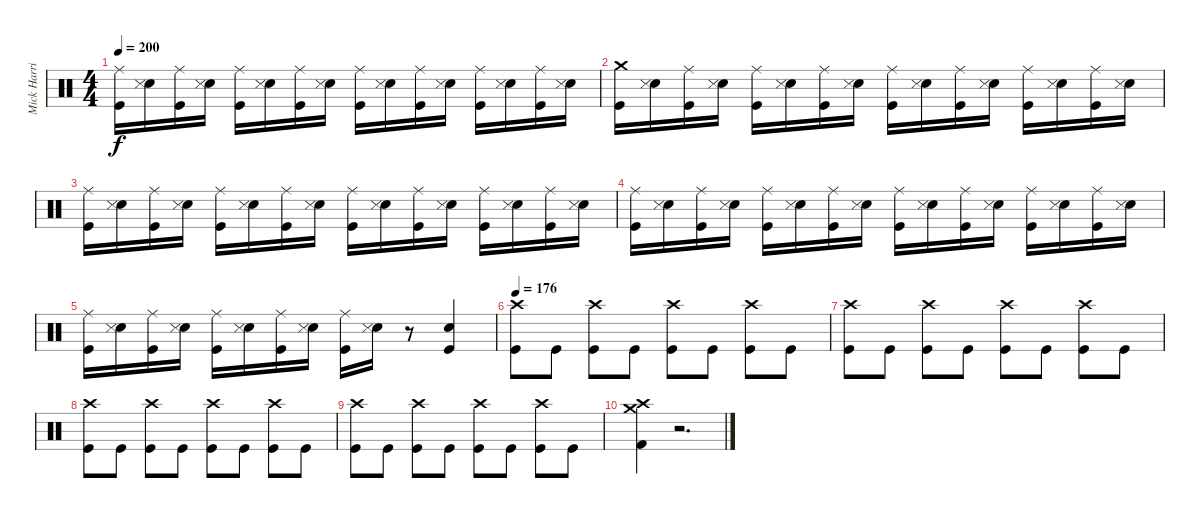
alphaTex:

\track ("Mick Harris (Drums)" "Mick Harri") {instrument percussion}
\staff {score}
\articulation defaults
\ts (4 4)
\tempo 200
\clef neutral
\ks c
("Kick (hit)" "Ride (middle)").16{dy f} ("Electric Snare (hit)" "Snare (side stick) 3").16 ("Kick (hit)" "Ride (middle)").16 ("Electric Snare (hit)" "Snare (side stick) 3").16 ("Kick (hit)" "Ride (middle)").16 ("Electric Snare (hit)" "Snare (side stick) 3").16 ("Kick (hit)" "Ride (middle)").16 ("Electric Snare (hit)" "Snare (side stick) 3").16 ("Kick (hit)" "Ride (middle)").16 ("Electric Snare (hit)" "Snare (side stick) 3").16 ("Kick (hit)" "Ride (middle)").16 ("Electric Snare (hit)" "Snare (side stick) 3").16 ("Kick (hit)" "Ride (middle)").16 ("Electric Snare (hit)" "Snare (side stick) 3").16 ("Kick (hit)" "Ride (middle)").16 ("Electric Snare (hit)" "Snare (side stick) 3").16 |
("Kick (hit)" "Crash medium (hit)").16 ("Electric Snare (hit)" "Snare (side stick) 3").16 ("Kick (hit)" "Ride (middle)").16 ("Electric Snare (hit)" "Snare (side stick) 3").16 ("Kick (hit)" "Ride (middle)").16 ("Electric Snare (hit)" "Snare (side stick) 3").16 ("Kick (hit)" "Ride (middle)").16 ("Electric Snare (hit)" "Snare (side stick) 3").16 ("Kick (hit)" "Ride (middle)").16 ("Electric Snare (hit)" "Snare (side stick) 3").16 ("Kick (hit)" "Ride (middle)").16 ("Electric Snare (hit)" "Snare (side stick) 3").16 ("Kick (hit)" "Ride (middle)").16 ("Electric Snare (hit)" "Snare (side stick) 3").16 ("Kick (hit)" "Ride (middle)").16 ("Electric Snare (hit)" "Snare (side stick) 3").16 |
("Kick (hit)" "Ride (middle)").16 ("Electric Snare (hit)" "Snare (side stick) 3").16 ("Kick (hit)" "Ride (middle)").16 ("Electric Snare (hit)" "Snare (side stick) 3").16 ("Kick (hit)" "Ride (middle)").16 ("Electric Snare (hit)" "Snare (side stick) 3").16 ("Kick (hit)" "Ride (middle)").16 ("Electric Snare (hit)" "Snare (side stick) 3").16 ("Kick (hit)" "Ride (middle)").16 ("Electric Snare (hit)" "Snare (side stick) 3").16 ("Kick (hit)" "Ride (middle)").16 ("Electric Snare (hit)" "Snare (side stick) 3").16 ("Kick (hit)" "Ride (middle)").16 ("Electric Snare (hit)" "Snare (side stick) 3").16 ("Kick (hit)" "Ride (middle)").16 ("Electric Snare (hit)" "Snare (side stick) 3").16 |
("Kick (hit)" "Ride (middle)").16 ("Electric Snare (hit)" "Snare (side stick) 3").16 ("Kick (hit)" "Ride (middle)").16 ("Electric Snare (hit)" "Snare (side stick) 3").16 ("Kick (hit)" "Ride (middle)").16 ("Electric Snare (hit)" "Snare (side stick) 3").16 ("Kick (hit)" "Ride (middle)").16 ("Electric Snare (hit)" "Snare (side stick) 3").16 ("Kick (hit)" "Ride (middle)").16 ("Electric Snare (hit)" "Snare (side stick) 3").16 ("Kick (hit)" "Ride (middle)").16 ("Electric Snare (hit)" "Snare (side stick) 3").16 ("Kick (hit)" "Ride (middle)").16 ("Electric Snare (hit)" "Snare (side stick) 3").16 ("Kick (hit)" "Ride (middle)").16 ("Electric Snare (hit)" "Snare (side stick) 3").16 |
("Kick (hit)" "Ride (middle)").16 ("Electric Snare (hit)" "Snare (side stick) 3").16 ("Kick (hit)" "Ride (middle)").16 ("Electric Snare (hit)" "Snare (side stick) 3").16 ("Kick (hit)" "Ride (middle)").16 ("Electric Snare (hit)" "Snare (side stick) 3").16 ("Kick (hit)" "Ride (middle)").16 ("Electric Snare (hit)" "Snare (side stick) 3").16 ("Kick (hit)" "Ride (middle)").16 ("Electric Snare (hit)" "Snare (side stick) 3").16 r.8 ("Kick (hit)" "Electric Snare (hit)").4 |
\tempo 176
("Kick (hit)" "Crash high (hit)").8 "Kick (hit)".8 ("Kick (hit)" "Crash high (hit)").8 "Kick (hit)".8 ("Kick (hit)" "Crash high (hit)").8 "Kick (hit)".8 ("Kick (hit)" "Crash high (hit)").8 "Kick (hit)".8 |
("Kick (hit)" "Crash high (hit)").8 "Kick (hit)".8 ("Kick (hit)" "Crash high (hit)").8 "Kick (hit)".8 ("Kick (hit)" "Crash high (hit)").8 "Kick (hit)".8 ("Kick (hit)" "Crash high (hit)").8 "Kick (hit)".8 |
("Kick (hit)" "Crash high (hit)").8 "Kick (hit)".8 ("Kick (hit)" "Crash high (hit)").8 "Kick (hit)".8 ("Kick (hit)" "Crash high (hit)").8 "Kick (hit)".8 ("Kick (hit)" "Crash high (hit)").8 "Kick (hit)".8 |
("Kick (hit)" "Crash high (hit)").8 "Kick (hit)".8 ("Kick (hit)" "Crash high (hit)").8 "Kick (hit)".8 ("Kick (hit)" "Crash high (hit)").8 "Kick (hit)".8 ("Kick (hit)" "Crash high (hit)").8 "Kick (hit)".8 |
("Kick (hit) 2" "Crash high (hit)" "Crash medium (hit)").4 r.2{d}
